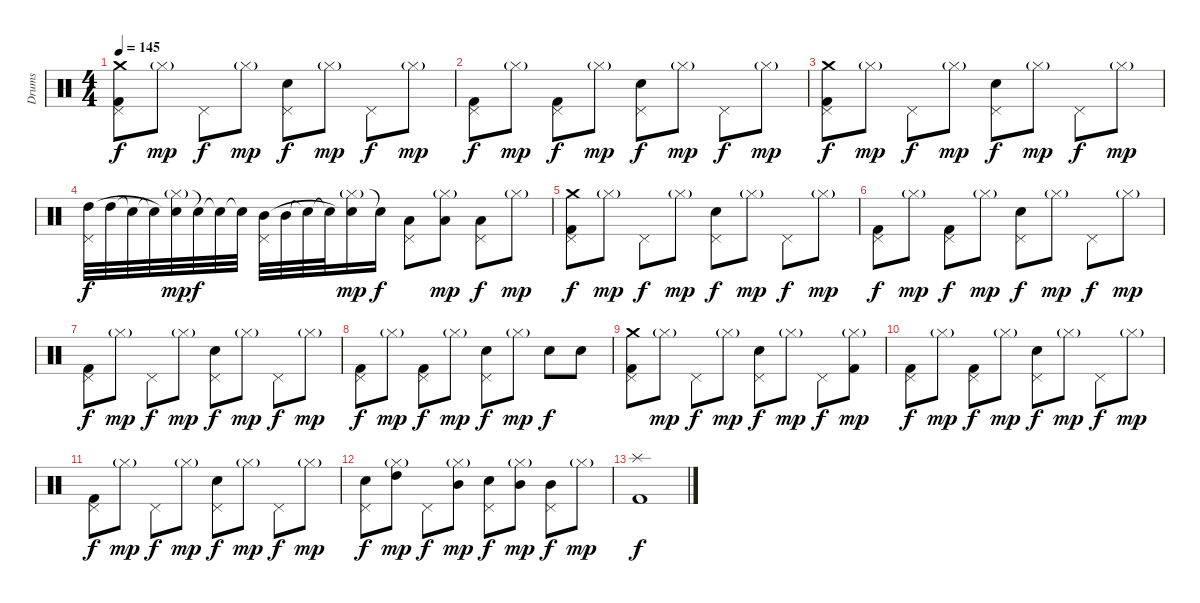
\track ("Drums" "Drums") {instrument percussion}
\staff {score}
\articulation defaults
\ts (4 4)
\tempo 145
\clef neutral
\ks c
("Pedal Hi-Hat (hit)" "Crash medium (hit)" "Kick (hit) 2").8{dy f} "Hi-Hat (closed)"{g}.8{dy mp} "Pedal Hi-Hat (hit)".8{dy f} "Hi-Hat (closed)"{g}.8{dy mp} ("Pedal Hi-Hat (hit)" "Snare (hit) 2").8{dy f} "Hi-Hat (closed)"{g}.8{dy mp} "Pedal Hi-Hat (hit)".8{dy f} "Hi-Hat (closed)"{g}.8{dy mp} |
("Pedal Hi-Hat (hit)" "Kick (hit) 2").8{dy f} "Hi-Hat (closed)"{g}.8{dy mp} ("Pedal Hi-Hat (hit)" "Kick (hit) 2").8{dy f} "Hi-Hat (closed)"{g}.8{dy mp} ("Pedal Hi-Hat (hit)" "Snare (hit) 2").8{dy f} "Hi-Hat (closed)"{g}.8{dy mp} "Pedal Hi-Hat (hit)".8{dy f} "Hi-Hat (closed)"{g}.8{dy mp} |
("Pedal Hi-Hat (hit)" "Crash medium (hit)" "Kick (hit) 2").8{dy f} "Hi-Hat (closed)"{g}.8{dy mp} "Pedal Hi-Hat (hit)".8{dy f} "Hi-Hat (closed)"{g}.8{dy mp} ("Pedal Hi-Hat (hit)" "Snare (hit) 2").8{dy f} "Hi-Hat (closed)"{g}.8{dy mp} "Pedal Hi-Hat (hit)".8{dy f} "Hi-Hat (closed)"{g}.8{dy mp} |
("Pedal Hi-Hat (hit)" "High Tom (hit)").32{dy f} "High Tom (hit)".32 "Snare (hit)"{t}.32 "Snare (hit)"{t}.32 ("Hi-Hat (closed)"{g} "Snare (hit)"{t}).32{dy mp} "Snare (hit)"{t}.32{dy f} "Snare (hit)"{t}.32 "Snare (hit)"{t}.32 ("Pedal Hi-Hat (hit)" "Mid Tom (hit)").32 "Mid Tom (hit)".32 "Snare (hit)"{t}.32 "Snare (hit)"{t}.32 ("Hi-Hat (closed)"{g} "Snare (hit)"{t}).16{dy mp} "Snare (hit)"{t}.16{dy f} ("Pedal Hi-Hat (hit)" "Low Tom (hit)").8 ("Hi-Hat (closed)"{g} "Low Tom (hit)").8{dy mp} ("Pedal Hi-Hat (hit)" "Low Floor Tom (hit)").8{dy f} "Hi-Hat (closed)"{g}.8{dy mp} |
("Pedal Hi-Hat (hit)" "Crash medium (hit)" "Kick (hit) 2").8{dy f} "Hi-Hat (closed)"{g}.8{dy mp} "Pedal Hi-Hat (hit)".8{dy f} "Hi-Hat (closed)"{g}.8{dy mp} ("Pedal Hi-Hat (hit)" "Snare (hit) 2").8{dy f} "Hi-Hat (closed)"{g}.8{dy mp} "Pedal Hi-Hat (hit)".8{dy f} "Hi-Hat (closed)"{g}.8{dy mp} |
("Pedal Hi-Hat (hit)" "Kick (hit) 2").8{dy f} "Hi-Hat (closed)"{g}.8{dy mp} ("Pedal Hi-Hat (hit)" "Kick (hit) 2").8{dy f} "Hi-Hat (closed)"{g}.8{dy mp} ("Pedal Hi-Hat (hit)" "Snare (hit) 2").8{dy f} "Hi-Hat (closed)"{g}.8{dy mp} "Pedal Hi-Hat (hit)".8{dy f} "Hi-Hat (closed)"{g}.8{dy mp} |
("Pedal Hi-Hat (hit)" "Kick (hit) 2").8{dy f} "Hi-Hat (closed)"{g}.8{dy mp} "Pedal Hi-Hat (hit)".8{dy f} "Hi-Hat (closed)"{g}.8{dy mp} ("Pedal Hi-Hat (hit)" "Snare (hit) 2").8{dy f} "Hi-Hat (closed)"{g}.8{dy mp} "Pedal Hi-Hat (hit)".8{dy f} "Hi-Hat (closed)"{g}.8{dy mp} |
("Pedal Hi-Hat (hit)" "Kick (hit) 2").8{dy f} "Hi-Hat (closed)"{g}.8{dy mp} ("Pedal Hi-Hat (hit)" "Kick (hit) 2").8{dy f} "Hi-Hat (closed)"{g}.8{dy mp} ("Pedal Hi-Hat (hit)" "Snare (hit) 2").8{dy f} "Hi-Hat (closed)"{g}.8{dy mp} "Snare (hit) 2".8{dy f} "Snare (hit) 2".8 |
("Pedal Hi-Hat (hit)" "Crash medium (hit)" "Kick (hit) 2").8 "Hi-Hat (closed)"{g}.8{dy mp} "Pedal Hi-Hat (hit)".8{dy f} "Hi-Hat (closed)"{g}.8{dy mp} ("Pedal Hi-Hat (hit)" "Snare (hit) 2").8{dy f} "Hi-Hat (closed)"{g}.8{dy mp} "Pedal Hi-Hat (hit)".8{dy f} ("Hi-Hat (closed)"{g} "Kick (hit) 2").8{dy mp} |
("Pedal Hi-Hat (hit)" "Kick (hit) 2").8{dy f} "Hi-Hat (closed)"{g}.8{dy mp} ("Pedal Hi-Hat (hit)" "Kick (hit) 2").8{dy f} "Hi-Hat (closed)"{g}.8{dy mp} ("Pedal Hi-Hat (hit)" "Snare (hit) 2").8{dy f} "Hi-Hat (closed)"{g}.8{dy mp} "Pedal Hi-Hat (hit)".8{dy f} "Hi-Hat (closed)"{g}.8{dy mp} |
("Pedal Hi-Hat (hit)" "Kick (hit) 2").8{dy f} "Hi-Hat (closed)"{g}.8{dy mp} "Pedal Hi-Hat (hit)".8{dy f} "Hi-Hat (closed)"{g}.8{dy mp} ("Pedal Hi-Hat (hit)" "Snare (hit) 2").8{dy f} "Hi-Hat (closed)"{g}.8{dy mp} "Pedal Hi-Hat (hit)".8{dy f} "Hi-Hat (closed)"{g}.8{dy mp} |
("Pedal Hi-Hat (hit)" "Electric Snare (hit)").8{dy f} ("Hi-Hat (closed)"{g} "High Tom (hit)").8{dy mp} "Pedal Hi-Hat (hit)".8{dy f} ("Hi-Hat (closed)"{g} "Mid Tom (hit)").8{dy mp} ("Pedal Hi-Hat (hit)" "Electric Snare (hit)").8{dy f} ("Hi-Hat (closed)"{g} "Mid Tom (hit)").8{dy mp} ("Pedal Hi-Hat (hit)" "Mid Tom (hit)").8{dy f} "Hi-Hat (closed)"{g}.8{dy mp} |
("Splash (hit)" "Kick (hit) 2").1{dy f}
